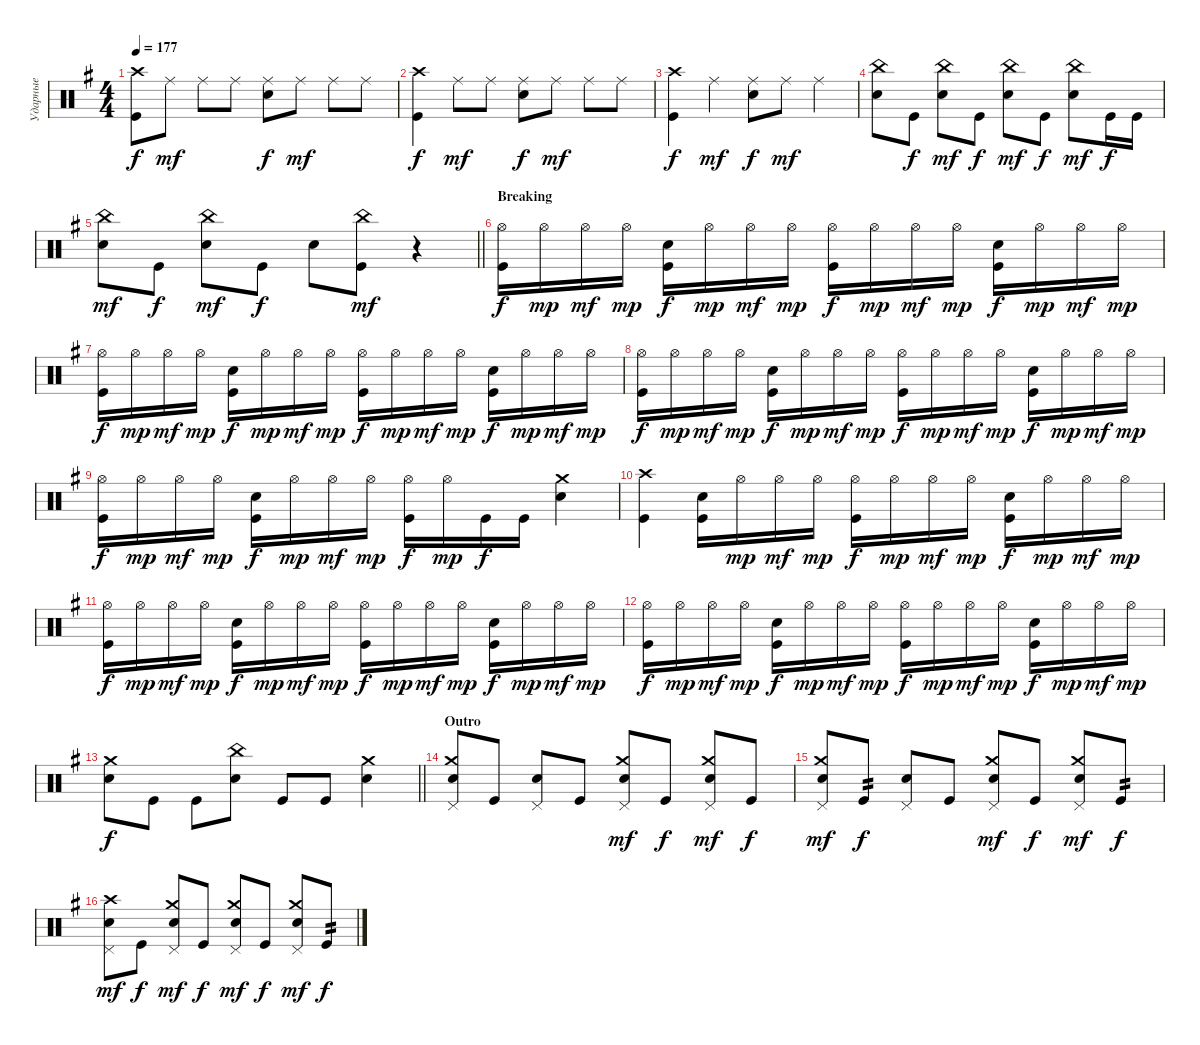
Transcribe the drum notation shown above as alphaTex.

\track ("Ударные" "Ударные") {instrument percussion}
\staff {score}
\articulation defaults
\ts (4 4)
\tempo 177
\clef neutral
\ks eminor
("Crash high (hit)" "Kick (hit)").8{dy f} "Ride (middle)".8{dy mf} "Ride (middle)".8 "Ride (middle)".8 ("Ride (middle)" "Snare (hit) 2").8{dy f} "Ride (middle)".8{dy mf} "Ride (middle)".8 "Ride (middle)".8 |
("Crash high (hit)" "Kick (hit)").4{dy f} "Ride (middle)".8{dy mf} "Ride (middle)".8 ("Ride (middle)" "Snare (hit) 2").8{dy f} "Ride (middle)".8{dy mf} "Ride (middle)".8 "Ride (middle)".8 |
("Crash high (hit)" "Kick (hit)").4{dy f} "Ride (middle)".4{dy mf} ("Ride (middle)" "Snare (hit) 2").8{dy f} "Ride (middle)".8{dy mf} "Ride (middle)".4 |
("Snare (hit) 2" "China (hit)").8 "Kick (hit)".8{dy f} ("Snare (hit) 2" "China (hit)").8{dy mf} "Kick (hit)".8{dy f} ("Snare (hit) 2" "China (hit)").8{dy mf} "Kick (hit)".8{dy f} ("Snare (hit) 2" "China (hit)").8{dy mf} "Kick (hit)".16{dy f} "Kick (hit)".16 |
\barLineRight lightlight
("Snare (hit) 2" "China (hit)").8{dy mf} "Kick (hit)".8{dy f} ("Snare (hit) 2" "China (hit)").8{dy mf} "Kick (hit)".8{dy f} "Snare (hit) 2".8 ("Kick (hit)" "China (hit)").8{dy mf} r.4 |
\section ("" "Breaking")
("Hi-Hat (open)" "Kick (hit)").16{dy f} "Hi-Hat (open)".16{dy mp} "Hi-Hat (open)".16{dy mf} "Hi-Hat (open)".16{dy mp} ("Kick (hit)" "Snare (hit) 2").16{dy f} "Hi-Hat (open)".16{dy mp} "Hi-Hat (open)".16{dy mf} "Hi-Hat (open)".16{dy mp} ("Hi-Hat (open)" "Kick (hit)").16{dy f} "Hi-Hat (open)".16{dy mp} "Hi-Hat (open)".16{dy mf} "Hi-Hat (open)".16{dy mp} ("Kick (hit)" "Snare (hit) 2").16{dy f} "Hi-Hat (open)".16{dy mp} "Hi-Hat (open)".16{dy mf} "Hi-Hat (open)".16{dy mp} |
("Hi-Hat (open)" "Kick (hit)").16{dy f} "Hi-Hat (open)".16{dy mp} "Hi-Hat (open)".16{dy mf} "Hi-Hat (open)".16{dy mp} ("Kick (hit)" "Snare (hit) 2").16{dy f} "Hi-Hat (open)".16{dy mp} "Hi-Hat (open)".16{dy mf} "Hi-Hat (open)".16{dy mp} ("Hi-Hat (open)" "Kick (hit)").16{dy f} "Hi-Hat (open)".16{dy mp} "Hi-Hat (open)".16{dy mf} "Hi-Hat (open)".16{dy mp} ("Kick (hit)" "Snare (hit) 2").16{dy f} "Hi-Hat (open)".16{dy mp} "Hi-Hat (open)".16{dy mf} "Hi-Hat (open)".16{dy mp} |
("Hi-Hat (open)" "Kick (hit)").16{dy f} "Hi-Hat (open)".16{dy mp} "Hi-Hat (open)".16{dy mf} "Hi-Hat (open)".16{dy mp} ("Kick (hit)" "Snare (hit) 2").16{dy f} "Hi-Hat (open)".16{dy mp} "Hi-Hat (open)".16{dy mf} "Hi-Hat (open)".16{dy mp} ("Hi-Hat (open)" "Kick (hit)").16{dy f} "Hi-Hat (open)".16{dy mp} "Hi-Hat (open)".16{dy mf} "Hi-Hat (open)".16{dy mp} ("Kick (hit)" "Snare (hit) 2").16{dy f} "Hi-Hat (open)".16{dy mp} "Hi-Hat (open)".16{dy mf} "Hi-Hat (open)".16{dy mp} |
("Hi-Hat (open)" "Kick (hit)").16{dy f} "Hi-Hat (open)".16{dy mp} "Hi-Hat (open)".16{dy mf} "Hi-Hat (open)".16{dy mp} ("Kick (hit)" "Snare (hit) 2").16{dy f} "Hi-Hat (open)".16{dy mp} "Hi-Hat (open)".16{dy mf} "Hi-Hat (open)".16{dy mp} ("Hi-Hat (open)" "Kick (hit)").16{dy f} "Hi-Hat (open)".16{dy mp} "Kick (hit)".16{dy f} "Kick (hit)".16 ("Crash medium (hit)" "Snare (hit) 2").4 |
("Crash high (hit)" "Kick (hit)").4 ("Kick (hit)" "Snare (hit) 2").16 "Hi-Hat (open)".16{dy mp} "Hi-Hat (open)".16{dy mf} "Hi-Hat (open)".16{dy mp} ("Hi-Hat (open)" "Kick (hit)").16{dy f} "Hi-Hat (open)".16{dy mp} "Hi-Hat (open)".16{dy mf} "Hi-Hat (open)".16{dy mp} ("Kick (hit)" "Snare (hit) 2").16{dy f} "Hi-Hat (open)".16{dy mp} "Hi-Hat (open)".16{dy mf} "Hi-Hat (open)".16{dy mp} |
("Hi-Hat (open)" "Kick (hit)").16{dy f} "Hi-Hat (open)".16{dy mp} "Hi-Hat (open)".16{dy mf} "Hi-Hat (open)".16{dy mp} ("Kick (hit)" "Snare (hit) 2").16{dy f} "Hi-Hat (open)".16{dy mp} "Hi-Hat (open)".16{dy mf} "Hi-Hat (open)".16{dy mp} ("Hi-Hat (open)" "Kick (hit)").16{dy f} "Hi-Hat (open)".16{dy mp} "Hi-Hat (open)".16{dy mf} "Hi-Hat (open)".16{dy mp} ("Kick (hit)" "Snare (hit) 2").16{dy f} "Hi-Hat (open)".16{dy mp} "Hi-Hat (open)".16{dy mf} "Hi-Hat (open)".16{dy mp} |
("Hi-Hat (open)" "Kick (hit)").16{dy f} "Hi-Hat (open)".16{dy mp} "Hi-Hat (open)".16{dy mf} "Hi-Hat (open)".16{dy mp} ("Kick (hit)" "Snare (hit) 2").16{dy f} "Hi-Hat (open)".16{dy mp} "Hi-Hat (open)".16{dy mf} "Hi-Hat (open)".16{dy mp} ("Hi-Hat (open)" "Kick (hit)").16{dy f} "Hi-Hat (open)".16{dy mp} "Hi-Hat (open)".16{dy mf} "Hi-Hat (open)".16{dy mp} ("Kick (hit)" "Snare (hit) 2").16{dy f} "Hi-Hat (open)".16{dy mp} "Hi-Hat (open)".16{dy mf} "Hi-Hat (open)".16{dy mp} |
\barLineRight lightlight
("Snare (hit) 2" "Crash medium (hit)").8{dy f} "Kick (hit)".8 "Kick (hit)".8 ("Snare (hit) 2" "China (hit)").8 "Kick (hit)".8 "Kick (hit)".8 ("Snare (hit) 2" "Crash medium (hit)").4 |
\section ("" "Outro")
("Snare (hit) 2" "Crash medium (hit)" "Pedal Hi-Hat (hit)").8 "Kick (hit)".8 ("Snare (hit) 2" "Pedal Hi-Hat (hit)").8 "Kick (hit)".8 ("Snare (hit) 2" "Pedal Hi-Hat (hit)" "Crash medium (hit)").8{dy mf} "Kick (hit)".8{dy f} ("Snare (hit) 2" "Crash medium (hit)" "Pedal Hi-Hat (hit)").8{dy mf} "Kick (hit)".8{dy f} |
("Snare (hit) 2" "Crash medium (hit)" "Pedal Hi-Hat (hit)").8{dy mf} "Kick (hit)".8{tp 2 dy f} ("Snare (hit) 2" "Pedal Hi-Hat (hit)").8 "Kick (hit)".8 ("Snare (hit) 2" "Pedal Hi-Hat (hit)" "Crash medium (hit)").8{dy mf} "Kick (hit)".8{dy f} ("Snare (hit) 2" "Crash medium (hit)" "Pedal Hi-Hat (hit)").8{dy mf} "Kick (hit)".8{tp 2 dy f} |
("Snare (hit) 2" "Crash high (hit)" "Pedal Hi-Hat (hit)").8{dy mf} "Kick (hit)".8{dy f} ("Snare (hit) 2" "Crash medium (hit)" "Pedal Hi-Hat (hit)").8{dy mf} "Kick (hit)".8{dy f} ("Snare (hit) 2" "Pedal Hi-Hat (hit)" "Crash medium (hit)").8{dy mf} "Kick (hit)".8{dy f} ("Snare (hit) 2" "Crash medium (hit)" "Pedal Hi-Hat (hit)").8{dy mf} "Kick (hit)".8{tp 2 dy f}
